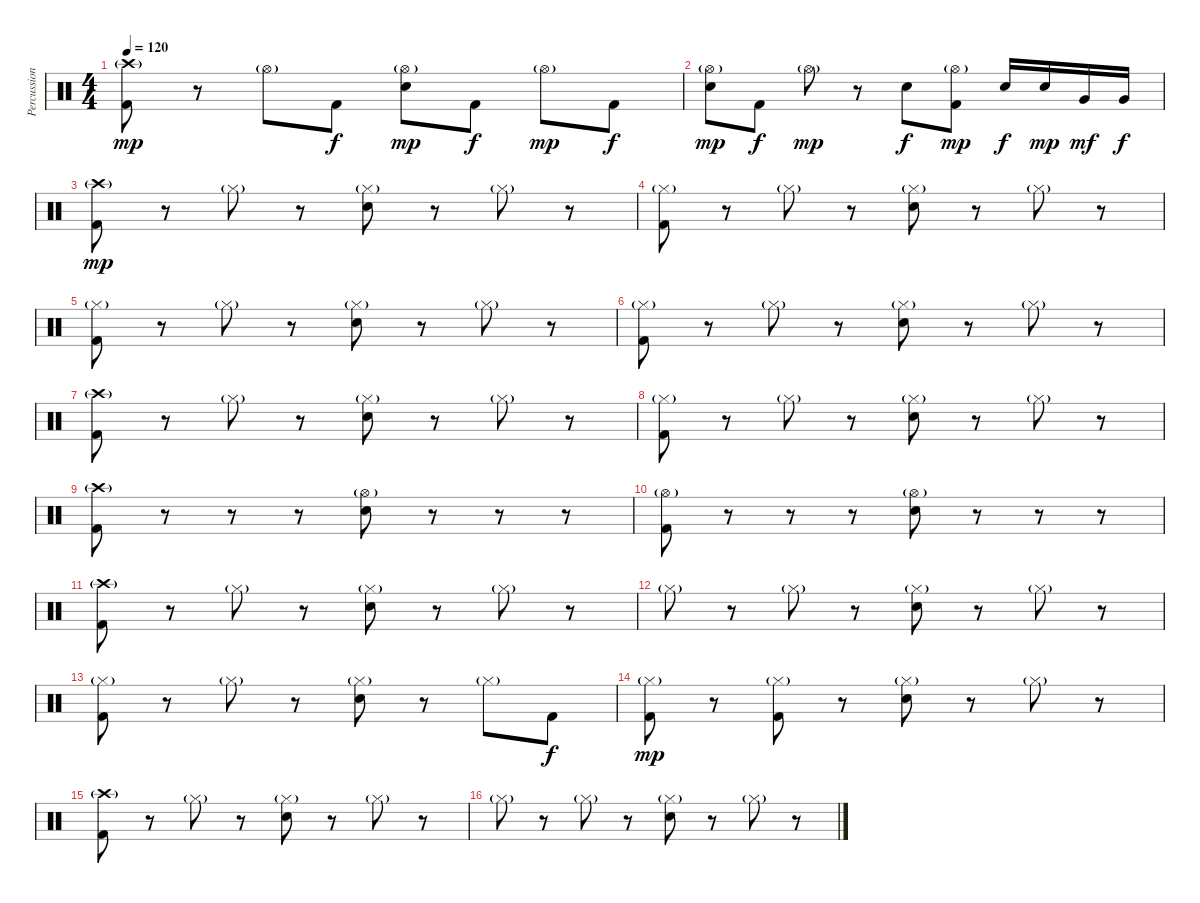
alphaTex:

\track ("Percussion" "Percussion") {instrument percussion}
\staff {score}
\articulation defaults
\ts (4 4)
\tempo 120
\clef neutral
\ks c
("Crash high (hit)"{g} "Kick (hit) 2").8{dy mp} r.8 "Hi-Hat (open)"{g}.8 "Kick (hit) 2".8{dy f} ("Hi-Hat (open)"{g} "Electric Snare (hit)").8{dy mp} "Kick (hit) 2".8{dy f} "Hi-Hat (open)"{g}.8{dy mp} "Kick (hit) 2".8{dy f} |
("Hi-Hat (open)"{g} "Electric Snare (hit)").8{dy mp} "Kick (hit) 2".8{dy f} "Hi-Hat (open)"{g}.8{dy mp} r.8 "Electric Snare (hit)".8{dy f} ("Hi-Hat (open)"{g} "Kick (hit) 2").8{dy mp} "Electric Snare (hit)".16{dy f} "Electric Snare (hit)".16{dy mp} "Very Low Tom (hit)".16{dy mf} "Very Low Tom (hit)".16{dy f} |
\section ("" "")
("Crash high (hit)"{g} "Kick (hit) 2").8{dy mp} r.8 "Hi-Hat (closed)"{g}.8 r.8 ("Hi-Hat (closed)"{g} "Electric Snare (hit)").8 r.8 "Hi-Hat (closed)"{g}.8 r.8 |
("Hi-Hat (closed)"{g} "Kick (hit) 2").8 r.8 "Hi-Hat (closed)"{g}.8 r.8 ("Hi-Hat (closed)"{g} "Electric Snare (hit)").8 r.8 "Hi-Hat (closed)"{g}.8 r.8 |
("Hi-Hat (closed)"{g} "Kick (hit) 2").8 r.8 "Hi-Hat (closed)"{g}.8 r.8 ("Hi-Hat (closed)"{g} "Electric Snare (hit)").8 r.8 "Hi-Hat (closed)"{g}.8 r.8 |
("Hi-Hat (closed)"{g} "Kick (hit) 2").8 r.8 "Hi-Hat (closed)"{g}.8 r.8 ("Hi-Hat (closed)"{g} "Electric Snare (hit)").8 r.8 "Hi-Hat (closed)"{g}.8 r.8 |
("Crash high (hit)"{g} "Kick (hit) 2").8 r.8 "Hi-Hat (closed)"{g}.8 r.8 ("Hi-Hat (closed)"{g} "Electric Snare (hit)").8 r.8 "Hi-Hat (closed)"{g}.8 r.8 |
("Hi-Hat (closed)"{g} "Kick (hit) 2").8 r.8 "Hi-Hat (closed)"{g}.8 r.8 ("Hi-Hat (closed)"{g} "Electric Snare (hit)").8 r.8 "Hi-Hat (closed)"{g}.8 r.8 |
("Crash high (hit)"{g} "Kick (hit) 2").8 r.8 r.8 r.8 ("Hi-Hat (open)"{g} "Electric Snare (hit)").8 r.8 r.8 r.8 |
("Hi-Hat (open)"{g} "Kick (hit) 2").8 r.8 r.8 r.8 ("Hi-Hat (open)"{g} "Electric Snare (hit)").8 r.8 r.8 r.8 |
\section ("" "")
("Crash high (hit)"{g} "Kick (hit) 2").8 r.8 "Hi-Hat (closed)"{g}.8 r.8 ("Hi-Hat (closed)"{g} "Electric Snare (hit)").8 r.8 "Hi-Hat (closed)"{g}.8 r.8 |
"Hi-Hat (closed)"{g}.8 r.8 "Hi-Hat (closed)"{g}.8 r.8 ("Hi-Hat (closed)"{g} "Electric Snare (hit)").8 r.8 "Hi-Hat (closed)"{g}.8 r.8 |
("Hi-Hat (closed)"{g} "Kick (hit) 2").8 r.8 "Hi-Hat (closed)"{g}.8 r.8 ("Hi-Hat (closed)"{g} "Electric Snare (hit)").8 r.8 "Hi-Hat (closed)"{g}.8 "Kick (hit) 2".8{dy f} |
("Hi-Hat (closed)"{g} "Kick (hit) 2").8{dy mp} r.8 ("Hi-Hat (closed)"{g} "Kick (hit) 2").8 r.8 ("Hi-Hat (closed)"{g} "Electric Snare (hit)").8 r.8 "Hi-Hat (closed)"{g}.8 r.8 |
("Crash high (hit)"{g} "Kick (hit) 2").8 r.8 "Hi-Hat (closed)"{g}.8 r.8 ("Hi-Hat (closed)"{g} "Electric Snare (hit)").8 r.8 "Hi-Hat (closed)"{g}.8 r.8 |
"Hi-Hat (closed)"{g}.8 r.8 "Hi-Hat (closed)"{g}.8 r.8 ("Hi-Hat (closed)"{g} "Electric Snare (hit)").8 r.8 "Hi-Hat (closed)"{g}.8 r.8
